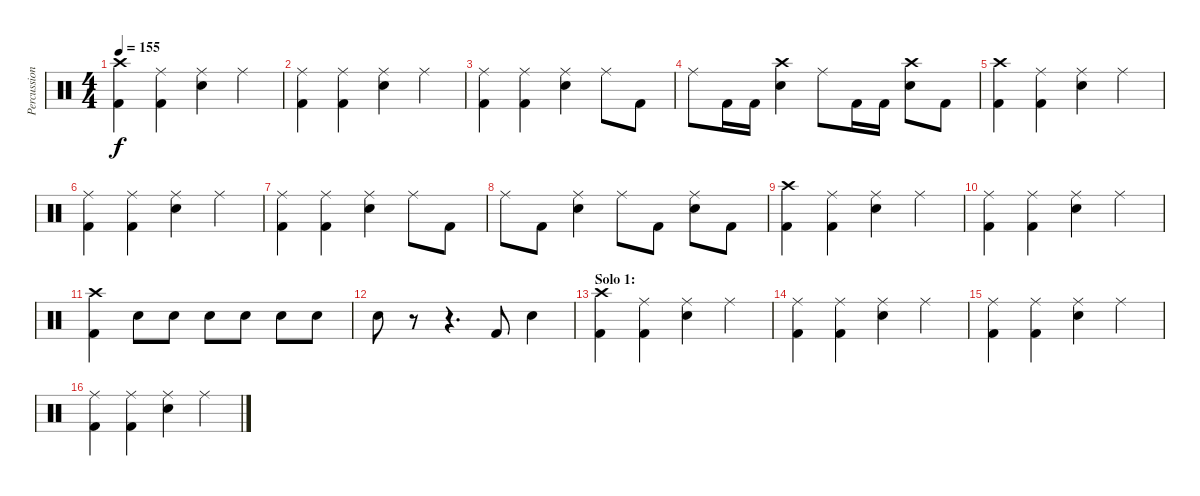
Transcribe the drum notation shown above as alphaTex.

\track ("Percussion" "Percussion") {instrument percussion}
\staff {score}
\articulation defaults
\ts (4 4)
\tempo 155
\clef neutral
\ks c
("Crash high (hit)" "Kick (hit) 2").4{dy f} ("Ride (middle)" "Kick (hit) 2").4 ("Ride (middle)" "Electric Snare (hit)").4 "Ride (middle)".4 |
("Ride (middle)" "Kick (hit) 2").4 ("Ride (middle)" "Kick (hit) 2").4 ("Ride (middle)" "Electric Snare (hit)").4 "Ride (middle)".4 |
("Ride (middle)" "Kick (hit) 2").4 ("Ride (middle)" "Kick (hit) 2").4 ("Ride (middle)" "Electric Snare (hit)").4 "Ride (middle)".8 "Kick (hit) 2".8 |
"Ride (middle)".8 "Kick (hit) 2".16 "Kick (hit) 2".16 ("Crash high (hit)" "Electric Snare (hit)").4 "Ride (middle)".8 "Kick (hit) 2".16 "Kick (hit) 2".16 ("Crash high (hit)" "Electric Snare (hit)").8 "Kick (hit) 2".8 |
("Crash high (hit)" "Kick (hit) 2").4 ("Ride (middle)" "Kick (hit) 2").4 ("Ride (middle)" "Electric Snare (hit)").4 "Ride (middle)".4 |
("Ride (middle)" "Kick (hit) 2").4 ("Ride (middle)" "Kick (hit) 2").4 ("Ride (middle)" "Electric Snare (hit)").4 "Ride (middle)".4 |
("Ride (middle)" "Kick (hit) 2").4 ("Ride (middle)" "Kick (hit) 2").4 ("Ride (middle)" "Electric Snare (hit)").4 "Ride (middle)".8 "Kick (hit) 2".8 |
"Ride (middle)".8 "Kick (hit) 2".8 ("Ride (middle)" "Electric Snare (hit)").4 "Ride (middle)".8 "Kick (hit) 2".8 ("Ride (middle)" "Electric Snare (hit)").8 "Kick (hit) 2".8 |
("Crash high (hit)" "Kick (hit) 2").4 ("Ride (middle)" "Kick (hit) 2").4 ("Ride (middle)" "Electric Snare (hit)").4 "Ride (middle)".4 |
("Ride (middle)" "Kick (hit) 2").4 ("Ride (middle)" "Kick (hit) 2").4 ("Ride (middle)" "Electric Snare (hit)").4 "Ride (middle)".4 |
("Crash high (hit)" "Kick (hit) 2").4 "Electric Snare (hit)".8 "Electric Snare (hit)".8 "Electric Snare (hit)".8 "Electric Snare (hit)".8 "Electric Snare (hit)".8 "Electric Snare (hit)".8 |
"Electric Snare (hit)".8 r.8 r.4{d} "Kick (hit) 2".8 "Electric Snare (hit)".4 |
\section ("" "Solo 1:")
("Crash high (hit)" "Kick (hit) 2").4 ("Ride (middle)" "Kick (hit) 2").4 ("Ride (middle)" "Electric Snare (hit)").4 "Ride (middle)".4 |
("Ride (middle)" "Kick (hit) 2").4 ("Ride (middle)" "Kick (hit) 2").4 ("Ride (middle)" "Electric Snare (hit)").4 "Ride (middle)".4 |
("Ride (middle)" "Kick (hit) 2").4 ("Ride (middle)" "Kick (hit) 2").4 ("Ride (middle)" "Electric Snare (hit)").4 "Ride (middle)".4 |
("Ride (middle)" "Kick (hit) 2").4 ("Ride (middle)" "Kick (hit) 2").4 ("Ride (middle)" "Electric Snare (hit)").4 "Ride (middle)".4
